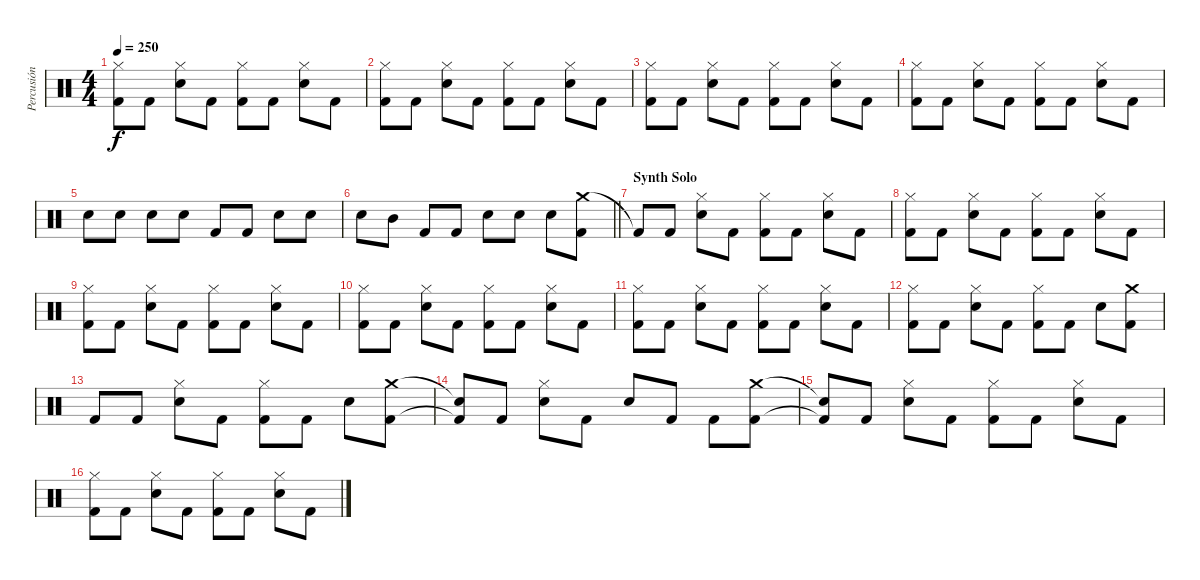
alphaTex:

\track ("Percusión" "Percusión") {instrument percussion}
\staff {score}
\articulation defaults
\ts (4 4)
\tempo 250
\clef neutral
\ks c
("Hi-Hat (closed)" "Kick (hit) 2").8{dy f} "Kick (hit) 2".8 ("Electric Snare (hit)" "Hi-Hat (closed)").8 "Kick (hit) 2".8 ("Hi-Hat (closed)" "Kick (hit) 2").8 "Kick (hit) 2".8 ("Electric Snare (hit)" "Hi-Hat (closed)").8 "Kick (hit) 2".8 |
("Hi-Hat (closed)" "Kick (hit) 2").8 "Kick (hit) 2".8 ("Electric Snare (hit)" "Hi-Hat (closed)").8 "Kick (hit) 2".8 ("Hi-Hat (closed)" "Kick (hit) 2").8 "Kick (hit) 2".8 ("Electric Snare (hit)" "Hi-Hat (closed)").8 "Kick (hit) 2".8 |
("Hi-Hat (closed)" "Kick (hit) 2").8 "Kick (hit) 2".8 ("Electric Snare (hit)" "Hi-Hat (closed)").8 "Kick (hit) 2".8 ("Hi-Hat (closed)" "Kick (hit) 2").8 "Kick (hit) 2".8 ("Electric Snare (hit)" "Hi-Hat (closed)").8 "Kick (hit) 2".8 |
("Hi-Hat (closed)" "Kick (hit) 2").8 "Kick (hit) 2".8 ("Electric Snare (hit)" "Hi-Hat (closed)").8 "Kick (hit) 2".8 ("Hi-Hat (closed)" "Kick (hit) 2").8 "Kick (hit) 2".8 ("Electric Snare (hit)" "Hi-Hat (closed)").8 "Kick (hit) 2".8 |
"Electric Snare (hit)".8 "Electric Snare (hit)".8 "Electric Snare (hit)".8 "Electric Snare (hit)".8 "Kick (hit) 2".8 "Kick (hit) 2".8 "Electric Snare (hit)".8 "Electric Snare (hit)".8 |
\barLineRight lightlight "Electric Snare (hit)".8 "Mid Tom (hit)".8 "Kick (hit) 2".8 "Kick (hit) 2".8 "Electric Snare (hit)".8 "Electric Snare (hit)".8 "Electric Snare (hit)".8
("Crash medium (hit)" "Kick (hit) 2").8 |
\section ("" "Synth Solo")
"Kick (hit) 2"{t}.8 "Kick (hit) 2".8 ("Electric Snare (hit)" "Hi-Hat (closed)").8 "Kick (hit) 2".8 ("Hi-Hat (closed)" "Kick (hit) 2").8 "Kick (hit) 2".8 ("Electric Snare (hit)" "Hi-Hat (closed)").8 "Kick (hit) 2".8 |
("Hi-Hat (closed)" "Kick (hit) 2").8 "Kick (hit) 2".8 ("Electric Snare (hit)" "Hi-Hat (closed)").8 "Kick (hit) 2".8 ("Hi-Hat (closed)" "Kick (hit) 2").8 "Kick (hit) 2".8 ("Electric Snare (hit)" "Hi-Hat (closed)").8 "Kick (hit) 2".8 |
("Hi-Hat (closed)" "Kick (hit) 2").8 "Kick (hit) 2".8 ("Electric Snare (hit)" "Hi-Hat (closed)").8 "Kick (hit) 2".8 ("Hi-Hat (closed)" "Kick (hit) 2").8 "Kick (hit) 2".8 ("Electric Snare (hit)" "Hi-Hat (closed)").8 "Kick (hit) 2".8 |
("Hi-Hat (closed)" "Kick (hit) 2").8 "Kick (hit) 2".8 ("Electric Snare (hit)" "Hi-Hat (closed)").8 "Kick (hit) 2".8 ("Hi-Hat (closed)" "Kick (hit) 2").8 "Kick (hit) 2".8 ("Electric Snare (hit)" "Hi-Hat (closed)").8 "Kick (hit) 2".8 |
("Hi-Hat (closed)" "Kick (hit) 2").8 "Kick (hit) 2".8 ("Electric Snare (hit)" "Hi-Hat (closed)").8 "Kick (hit) 2".8 ("Hi-Hat (closed)" "Kick (hit) 2").8 "Kick (hit) 2".8 ("Electric Snare (hit)" "Hi-Hat (closed)").8 "Kick (hit) 2".8 |
("Hi-Hat (closed)" "Kick (hit) 2").8 "Kick (hit) 2".8 ("Electric Snare (hit)" "Hi-Hat (closed)").8 "Kick (hit) 2".8 ("Hi-Hat (closed)" "Kick (hit) 2").8 "Kick (hit) 2".8 "Electric Snare (hit)".8 ("Crash medium (hit)" "Kick (hit) 2").8 |
"Kick (hit) 2".8 "Kick (hit) 2".8 ("Electric Snare (hit)" "Hi-Hat (closed)").8 "Kick (hit) 2".8 ("Hi-Hat (closed)" "Kick (hit) 2").8 "Kick (hit) 2".8 "Electric Snare (hit)".8 ("Crash medium (hit)" "Kick (hit) 2").8 |
("Snare (hit)"{t} "Kick (hit) 2"{t}).8 "Kick (hit) 2".8 ("Electric Snare (hit)" "Hi-Hat (closed)").8 "Kick (hit) 2".8 "Electric Snare (hit)".8 "Kick (hit) 2".8 "Kick (hit) 2".8 ("Crash medium (hit)" "Kick (hit) 2").8 |
("Snare (hit)"{t} "Kick (hit) 2"{t}).8 "Kick (hit) 2".8 ("Electric Snare (hit)" "Hi-Hat (closed)").8 "Kick (hit) 2".8 ("Hi-Hat (closed)" "Kick (hit) 2").8 "Kick (hit) 2".8 ("Electric Snare (hit)" "Hi-Hat (closed)").8 "Kick (hit) 2".8 |
("Hi-Hat (closed)" "Kick (hit) 2").8 "Kick (hit) 2".8 ("Electric Snare (hit)" "Hi-Hat (closed)").8 "Kick (hit) 2".8 ("Hi-Hat (closed)" "Kick (hit) 2").8 "Kick (hit) 2".8 ("Electric Snare (hit)" "Hi-Hat (closed)").8 "Kick (hit) 2".8
